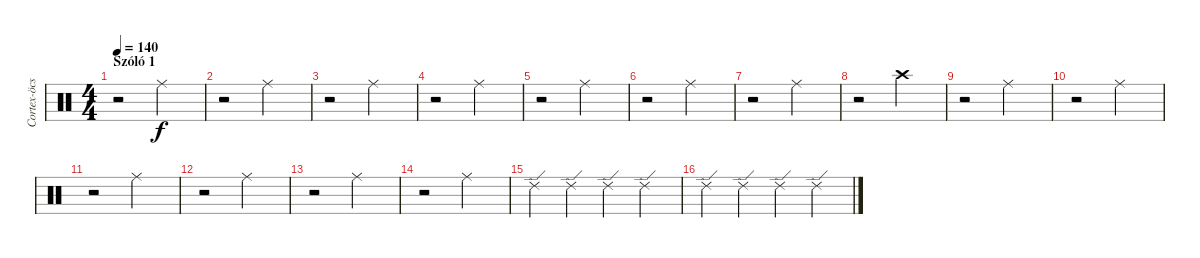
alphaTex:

\track ("Cortex-öcsi :)" "Cortex-öcs") {instrument percussion}
\staff {score}
\articulation defaults
\ts (4 4)
\section ("" "Szóló 1")
\tempo 140
\clef neutral
\ks c
r.2{dy f} "Ride (middle)".2 |
r.2 "Ride (middle)".2 |
r.2 "Ride (middle)".2 |
r.2 "Ride (middle)".2 |
r.2 "Ride (middle)".2 |
r.2 "Ride (middle)".2 |
r.2 "Ride (middle)".2 |
r.2 "Crash high (hit)".2 |
r.2 "Ride (middle)".2 |
r.2 "Ride (middle)".2 |
r.2 "Ride (middle)".2 |
r.2 "Ride (middle)".2 |
r.2 "Ride (middle)".2 |
r.2 "Ride (middle)".2 |
"Ride (edge) 2".4 "Ride (edge) 2".4 "Ride (edge) 2".4 "Ride (edge) 2".4 |
"Ride (edge) 2".4 "Ride (edge) 2".4 "Ride (edge) 2".4 "Ride (edge) 2".4
